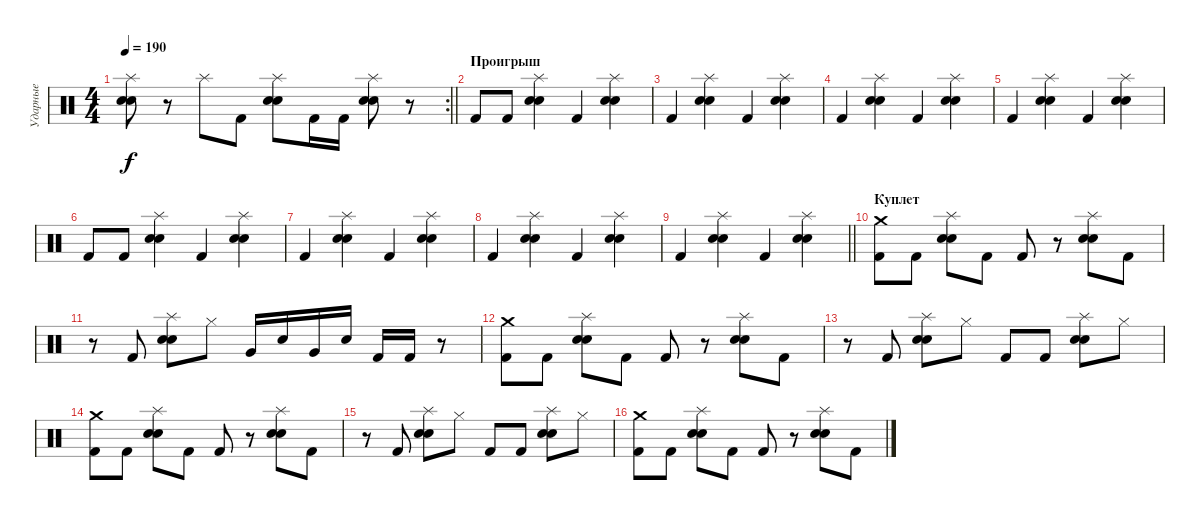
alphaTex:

\track ("Ударные" "Ударные") {instrument percussion}
\staff {score}
\articulation defaults
\rc 2
\ts (4 4)
\tempo 190
\clef neutral
\barLineRight lightlight
\ks c
("Splash (hit)" "Electric Snare (hit)" "Snare (hit) 2").8{dy f} r.8 "Splash (hit)".8 "Kick (hit) 2".8 ("Splash (hit)" "Electric Snare (hit)" "Snare (hit) 2").8 "Kick (hit) 2".16 "Kick (hit) 2".16 ("Splash (hit)" "Electric Snare (hit)" "Snare (hit) 2").8 r.8 |
\section ("" "Проигрыш")
"Kick (hit) 2".8 "Kick (hit) 2".8 ("Splash (hit)" "Electric Snare (hit)" "Snare (hit) 2").4 "Kick (hit) 2".4 ("Splash (hit)" "Electric Snare (hit)" "Snare (hit) 2").4 |
"Kick (hit) 2".4 ("Splash (hit)" "Electric Snare (hit)" "Snare (hit) 2").4 "Kick (hit) 2".4 ("Splash (hit)" "Electric Snare (hit)" "Snare (hit) 2").4 |
"Kick (hit) 2".4 ("Splash (hit)" "Electric Snare (hit)" "Snare (hit) 2").4 "Kick (hit) 2".4 ("Splash (hit)" "Electric Snare (hit)" "Snare (hit) 2").4 |
"Kick (hit) 2".4 ("Splash (hit)" "Electric Snare (hit)" "Snare (hit) 2").4 "Kick (hit) 2".4 ("Splash (hit)" "Electric Snare (hit)" "Snare (hit) 2").4 |
"Kick (hit) 2".8 "Kick (hit) 2".8 ("Splash (hit)" "Electric Snare (hit)" "Snare (hit) 2").4 "Kick (hit) 2".4 ("Splash (hit)" "Electric Snare (hit)" "Snare (hit) 2").4 |
"Kick (hit) 2".4 ("Splash (hit)" "Electric Snare (hit)" "Snare (hit) 2").4 "Kick (hit) 2".4 ("Splash (hit)" "Electric Snare (hit)" "Snare (hit) 2").4 |
"Kick (hit) 2".4 ("Splash (hit)" "Electric Snare (hit)" "Snare (hit) 2").4 "Kick (hit) 2".4 ("Splash (hit)" "Electric Snare (hit)" "Snare (hit) 2").4 |
\barLineRight lightlight "Kick (hit) 2".4
("Splash (hit)" "Electric Snare (hit)" "Snare (hit) 2").4 "Kick (hit) 2".4 ("Splash (hit)" "Electric Snare (hit)" "Snare (hit) 2").4 |
\section ("" "Куплет")
("Crash medium (hit)" "Kick (hit) 2").8 "Kick (hit) 2".8 ("Splash (hit)" "Electric Snare (hit)" "Snare (hit) 2").8 "Kick (hit) 2".8 "Kick (hit) 2".8 r.8 ("Splash (hit)" "Electric Snare (hit)" "Snare (hit) 2").8 "Kick (hit) 2".8 |
r.8 "Kick (hit) 2".8 ("Splash (hit)" "Electric Snare (hit)" "Snare (hit) 2").8 "Hi-Hat (closed)".8 "Very Low Tom (hit)".16 "Electric Snare (hit)".16 "Very Low Tom (hit)".16 "Electric Snare (hit)".16 "Kick (hit) 2".16 "Kick (hit) 2".16 r.8 |
("Crash medium (hit)" "Kick (hit) 2").8 "Kick (hit) 2".8 ("Splash (hit)" "Electric Snare (hit)" "Snare (hit) 2").8 "Kick (hit) 2".8 "Kick (hit) 2".8 r.8 ("Splash (hit)" "Electric Snare (hit)" "Snare (hit) 2").8 "Kick (hit) 2".8 |
r.8 "Kick (hit) 2".8 ("Splash (hit)" "Electric Snare (hit)" "Snare (hit) 2").8 "Hi-Hat (closed)".8 "Kick (hit) 2".8 "Kick (hit) 2".8 ("Splash (hit)" "Electric Snare (hit)" "Snare (hit) 2").8 "Hi-Hat (closed)".8 |
("Crash medium (hit)" "Kick (hit) 2").8 "Kick (hit) 2".8 ("Splash (hit)" "Electric Snare (hit)" "Snare (hit) 2").8 "Kick (hit) 2".8 "Kick (hit) 2".8 r.8 ("Splash (hit)" "Electric Snare (hit)" "Snare (hit) 2").8 "Kick (hit) 2".8 |
r.8 "Kick (hit) 2".8 ("Splash (hit)" "Electric Snare (hit)" "Snare (hit) 2").8 "Hi-Hat (closed)".8 "Kick (hit) 2".8 "Kick (hit) 2".8 ("Splash (hit)" "Electric Snare (hit)" "Snare (hit) 2").8 "Hi-Hat (closed)".8 |
("Crash medium (hit)" "Kick (hit) 2").8 "Kick (hit) 2".8 ("Splash (hit)" "Electric Snare (hit)" "Snare (hit) 2").8 "Kick (hit) 2".8 "Kick (hit) 2".8 r.8 ("Splash (hit)" "Electric Snare (hit)" "Snare (hit) 2").8 "Kick (hit) 2".8
